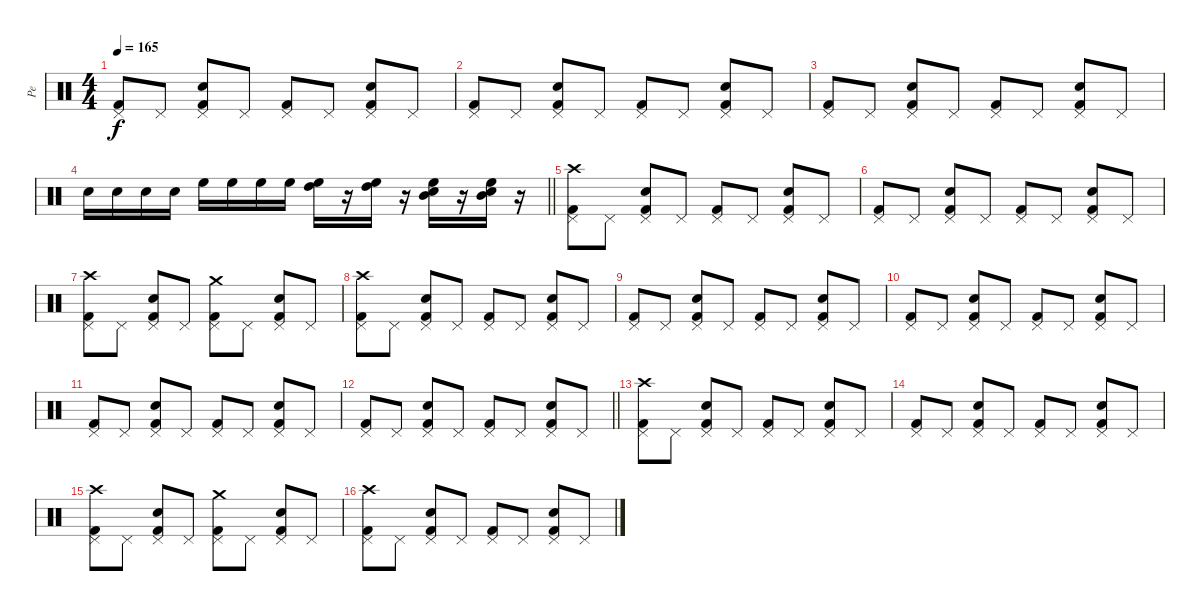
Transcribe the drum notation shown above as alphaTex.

\track ("Pe" "Pe") {instrument percussion}
\staff {score}
\articulation defaults
\ts (4 4)
\tempo 165
\clef neutral
\ks c
("Pedal Hi-Hat (hit)" "Kick (hit) 2").8{dy f} "Pedal Hi-Hat (hit)".8 ("Electric Snare (hit)" "Pedal Hi-Hat (hit)" "Kick (hit) 2").8 "Pedal Hi-Hat (hit)".8 ("Pedal Hi-Hat (hit)" "Kick (hit) 2").8 "Pedal Hi-Hat (hit)".8 ("Electric Snare (hit)" "Pedal Hi-Hat (hit)" "Kick (hit) 2").8 "Pedal Hi-Hat (hit)".8 |
("Pedal Hi-Hat (hit)" "Kick (hit) 2").8 "Pedal Hi-Hat (hit)".8 ("Electric Snare (hit)" "Pedal Hi-Hat (hit)" "Kick (hit) 2").8 "Pedal Hi-Hat (hit)".8 ("Pedal Hi-Hat (hit)" "Kick (hit) 2").8 "Pedal Hi-Hat (hit)".8 ("Electric Snare (hit)" "Pedal Hi-Hat (hit)" "Kick (hit) 2").8 "Pedal Hi-Hat (hit)".8 |
("Pedal Hi-Hat (hit)" "Kick (hit) 2").8 "Pedal Hi-Hat (hit)".8 ("Electric Snare (hit)" "Pedal Hi-Hat (hit)" "Kick (hit) 2").8 "Pedal Hi-Hat (hit)".8 ("Pedal Hi-Hat (hit)" "Kick (hit) 2").8 "Pedal Hi-Hat (hit)".8 ("Electric Snare (hit)" "Pedal Hi-Hat (hit)" "Kick (hit) 2").8 "Pedal Hi-Hat (hit)".8 |
\barLineRight lightlight "Electric Snare (hit)".16 "Electric Snare (hit)".16 "Electric Snare (hit)".16 "Electric Snare (hit)".16 "High Floor Tom (hit)".16 "High Floor Tom (hit)".16 "High Floor Tom (hit)".16 "High Floor Tom (hit)".16
("High Tom (hit)" "High Floor Tom (hit)").16 r.16 ("High Tom (hit)" "High Floor Tom (hit)").16 r.16 ("Mid Tom (hit)" "High Floor Tom (hit)" "Electric Snare (hit)").16 r.16 ("Mid Tom (hit)" "High Floor Tom (hit)" "Electric Snare (hit)").16 r.16 |
("Pedal Hi-Hat (hit)" "Kick (hit) 2" "Crash high (hit)").8 "Pedal Hi-Hat (hit)".8 ("Electric Snare (hit)" "Pedal Hi-Hat (hit)" "Kick (hit) 2").8 "Pedal Hi-Hat (hit)".8 ("Pedal Hi-Hat (hit)" "Kick (hit) 2").8 "Pedal Hi-Hat (hit)".8 ("Electric Snare (hit)" "Pedal Hi-Hat (hit)" "Kick (hit) 2").8 "Pedal Hi-Hat (hit)".8 |
("Pedal Hi-Hat (hit)" "Kick (hit) 2").8 "Pedal Hi-Hat (hit)".8 ("Electric Snare (hit)" "Pedal Hi-Hat (hit)" "Kick (hit) 2").8 "Pedal Hi-Hat (hit)".8 ("Pedal Hi-Hat (hit)" "Kick (hit) 2").8 "Pedal Hi-Hat (hit)".8 ("Electric Snare (hit)" "Pedal Hi-Hat (hit)" "Kick (hit) 2").8 "Pedal Hi-Hat (hit)".8 |
("Pedal Hi-Hat (hit)" "Kick (hit) 2" "Crash high (hit)").8 "Pedal Hi-Hat (hit)".8 ("Electric Snare (hit)" "Pedal Hi-Hat (hit)" "Kick (hit) 2").8 "Pedal Hi-Hat (hit)".8 ("Pedal Hi-Hat (hit)" "Kick (hit) 2" "Crash medium (hit)").8 "Pedal Hi-Hat (hit)".8 ("Electric Snare (hit)" "Pedal Hi-Hat (hit)" "Kick (hit) 2").8 "Pedal Hi-Hat (hit)".8 |
("Pedal Hi-Hat (hit)" "Kick (hit) 2" "Crash high (hit)").8 "Pedal Hi-Hat (hit)".8 ("Electric Snare (hit)" "Pedal Hi-Hat (hit)" "Kick (hit) 2").8 "Pedal Hi-Hat (hit)".8 ("Pedal Hi-Hat (hit)" "Kick (hit) 2").8 "Pedal Hi-Hat (hit)".8 ("Electric Snare (hit)" "Pedal Hi-Hat (hit)" "Kick (hit) 2").8 "Pedal Hi-Hat (hit)".8 |
("Pedal Hi-Hat (hit)" "Kick (hit) 2").8 "Pedal Hi-Hat (hit)".8 ("Electric Snare (hit)" "Pedal Hi-Hat (hit)" "Kick (hit) 2").8 "Pedal Hi-Hat (hit)".8 ("Pedal Hi-Hat (hit)" "Kick (hit) 2").8 "Pedal Hi-Hat (hit)".8 ("Electric Snare (hit)" "Pedal Hi-Hat (hit)" "Kick (hit) 2").8 "Pedal Hi-Hat (hit)".8 |
("Pedal Hi-Hat (hit)" "Kick (hit) 2").8 "Pedal Hi-Hat (hit)".8 ("Electric Snare (hit)" "Pedal Hi-Hat (hit)" "Kick (hit) 2").8 "Pedal Hi-Hat (hit)".8 ("Pedal Hi-Hat (hit)" "Kick (hit) 2").8 "Pedal Hi-Hat (hit)".8 ("Electric Snare (hit)" "Pedal Hi-Hat (hit)" "Kick (hit) 2").8 "Pedal Hi-Hat (hit)".8 |
("Pedal Hi-Hat (hit)" "Kick (hit) 2").8 "Pedal Hi-Hat (hit)".8 ("Electric Snare (hit)" "Pedal Hi-Hat (hit)" "Kick (hit) 2").8 "Pedal Hi-Hat (hit)".8 ("Pedal Hi-Hat (hit)" "Kick (hit) 2").8 "Pedal Hi-Hat (hit)".8 ("Electric Snare (hit)" "Pedal Hi-Hat (hit)" "Kick (hit) 2").8 "Pedal Hi-Hat (hit)".8 |
\barLineRight lightlight
("Pedal Hi-Hat (hit)" "Kick (hit) 2").8 "Pedal Hi-Hat (hit)".8 ("Electric Snare (hit)" "Pedal Hi-Hat (hit)" "Kick (hit) 2").8 "Pedal Hi-Hat (hit)".8 ("Pedal Hi-Hat (hit)" "Kick (hit) 2").8 "Pedal Hi-Hat (hit)".8 ("Electric Snare (hit)" "Pedal Hi-Hat (hit)" "Kick (hit) 2").8 "Pedal Hi-Hat (hit)".8 |
("Pedal Hi-Hat (hit)" "Kick (hit) 2" "Crash high (hit)").8 "Pedal Hi-Hat (hit)".8 ("Electric Snare (hit)" "Pedal Hi-Hat (hit)" "Kick (hit) 2").8 "Pedal Hi-Hat (hit)".8 ("Pedal Hi-Hat (hit)" "Kick (hit) 2").8 "Pedal Hi-Hat (hit)".8 ("Electric Snare (hit)" "Pedal Hi-Hat (hit)" "Kick (hit) 2").8 "Pedal Hi-Hat (hit)".8 |
("Pedal Hi-Hat (hit)" "Kick (hit) 2").8 "Pedal Hi-Hat (hit)".8 ("Electric Snare (hit)" "Pedal Hi-Hat (hit)" "Kick (hit) 2").8 "Pedal Hi-Hat (hit)".8 ("Pedal Hi-Hat (hit)" "Kick (hit) 2").8 "Pedal Hi-Hat (hit)".8 ("Electric Snare (hit)" "Pedal Hi-Hat (hit)" "Kick (hit) 2").8 "Pedal Hi-Hat (hit)".8 |
("Pedal Hi-Hat (hit)" "Kick (hit) 2" "Crash high (hit)").8 "Pedal Hi-Hat (hit)".8 ("Electric Snare (hit)" "Pedal Hi-Hat (hit)" "Kick (hit) 2").8 "Pedal Hi-Hat (hit)".8 ("Pedal Hi-Hat (hit)" "Kick (hit) 2" "Crash medium (hit)").8 "Pedal Hi-Hat (hit)".8 ("Electric Snare (hit)" "Pedal Hi-Hat (hit)" "Kick (hit) 2").8 "Pedal Hi-Hat (hit)".8 |
("Pedal Hi-Hat (hit)" "Kick (hit) 2" "Crash high (hit)").8 "Pedal Hi-Hat (hit)".8 ("Electric Snare (hit)" "Pedal Hi-Hat (hit)" "Kick (hit) 2").8 "Pedal Hi-Hat (hit)".8 ("Pedal Hi-Hat (hit)" "Kick (hit) 2").8 "Pedal Hi-Hat (hit)".8 ("Electric Snare (hit)" "Pedal Hi-Hat (hit)" "Kick (hit) 2").8 "Pedal Hi-Hat (hit)".8
